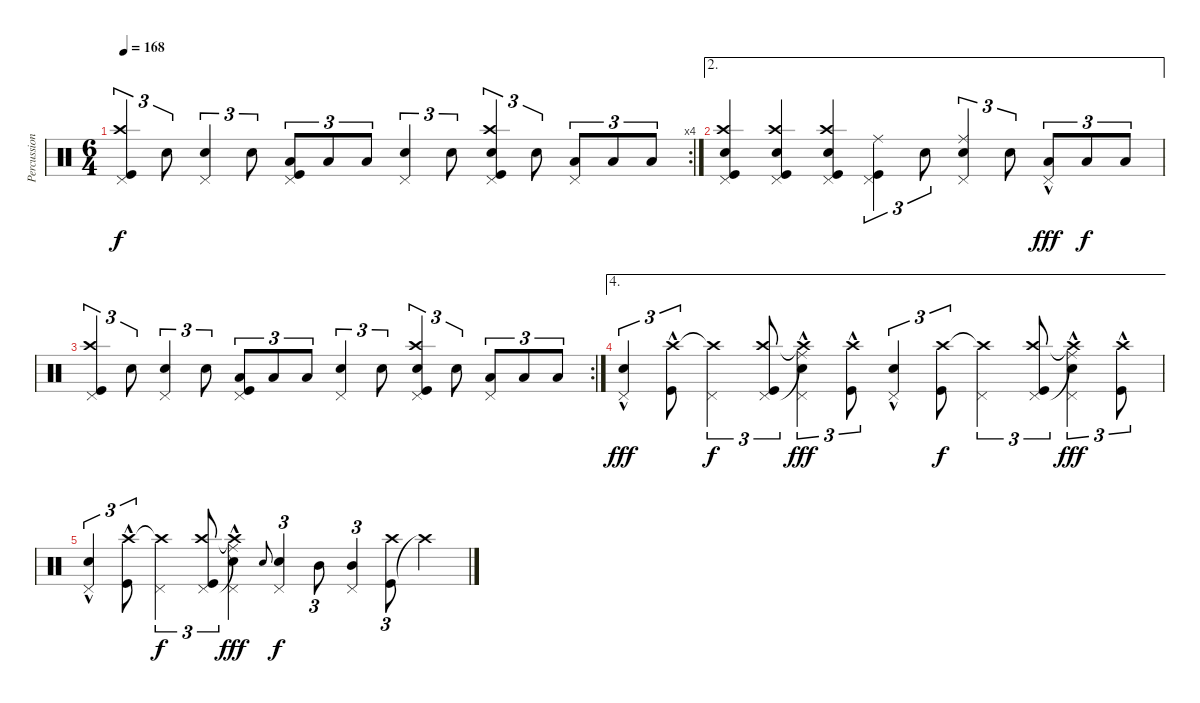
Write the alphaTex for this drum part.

\track ("Percussions" "Percussion") {instrument percussion}
\staff {score}
\articulation defaults
\rc 4
\ts (6 4)
\tempo 168
\clef neutral
\ks c
("Kick (hit)" "Crash high (hit)" "Pedal Hi-Hat (hit)").4{tu (3 2) dy f} "Snare (hit) 2".8{tu (3 2)} ("Snare (hit) 2" "Pedal Hi-Hat (hit)").4{tu (3 2)} "Snare (hit) 2".8{tu (3 2) beam split} ("Low Tom (hit)" "Kick (hit)" "Pedal Hi-Hat (hit)").8{tu (3 2)} "Low Tom (hit)".8{tu (3 2)} "Low Tom (hit)".8{tu (3 2)} ("Snare (hit) 2" "Pedal Hi-Hat (hit)").4{tu (3 2)} "Snare (hit) 2".8{tu (3 2)} ("Kick (hit)" "Crash high (hit)" "Snare (hit) 2" "Pedal Hi-Hat (hit)").4{tu (3 2)} "Snare (hit) 2".8{tu (3 2) beam split} ("Low Tom (hit)" "Pedal Hi-Hat (hit)").8{tu (3 2)} "Low Tom (hit)".8{tu (3 2)} "Low Tom (hit)".8{tu (3 2)} |
\ae 2
("Kick (hit)" "Crash high (hit)" "Snare (hit) 2" "Pedal Hi-Hat (hit)").4 ("Kick (hit)" "Crash high (hit)" "Snare (hit) 2" "Pedal Hi-Hat (hit)").4 ("Kick (hit)" "Crash high (hit)" "Snare (hit) 2" "Pedal Hi-Hat (hit)").4 ("Kick (hit)" "Ride (middle)" "Pedal Hi-Hat (hit)").4{tu (3 2)} "Snare (hit) 2".8{tu (3 2)} ("Snare (hit) 2" "Ride (middle)" "Pedal Hi-Hat (hit)").4{tu (3 2)} "Snare (hit) 2".8{tu (3 2) beam split} ("Low Tom (hit)" "Pedal Hi-Hat (hit)"{hac}).8{tu (3 2) dy fff} "Low Tom (hit)".8{tu (3 2) dy f} "Low Tom (hit)".8{tu (3 2)} |
\rc 2
("Kick (hit)" "Crash high (hit)" "Pedal Hi-Hat (hit)").4{tu (3 2)} "Snare (hit) 2".8{tu (3 2)} ("Snare (hit) 2" "Pedal Hi-Hat (hit)").4{tu (3 2)} "Snare (hit) 2".8{tu (3 2) beam split} ("Low Tom (hit)" "Kick (hit)" "Pedal Hi-Hat (hit)").8{tu (3 2)} "Low Tom (hit)".8{tu (3 2)} "Low Tom (hit)".8{tu (3 2)} ("Snare (hit) 2" "Pedal Hi-Hat (hit)").4{tu (3 2)} "Snare (hit) 2".8{tu (3 2)} ("Kick (hit)" "Crash high (hit)" "Snare (hit) 2" "Pedal Hi-Hat (hit)").4{tu (3 2)} "Snare (hit) 2".8{tu (3 2) beam split} ("Low Tom (hit)" "Pedal Hi-Hat (hit)").8{tu (3 2)} "Low Tom (hit)".8{tu (3 2)} "Low Tom (hit)".8{tu (3 2)} |
\ae 4
("Pedal Hi-Hat (hit)" "Snare (hit) 2"{hac}).4{tu (3 2) dy fff} ("Kick (hit)"{hac} "Crash high (hit)").8{tu (3 2)} ("Pedal Hi-Hat (hit)" "Crash high (hit)"{t}).4{tu (3 2) dy f} ("Crash high (hit)" "Pedal Hi-Hat (hit)" "Kick (hit)").8{tu (3 2)} ("Crash high (hit)"{t} "Ride (middle)"{t} "Pedal Hi-Hat (hit)" "Snare (hit) 2"{hac}).4{tu (3 2) dy fff} ("Kick (hit)"{hac} "Crash high (hit)").8{tu (3 2)} ("Pedal Hi-Hat (hit)" "Snare (hit) 2"{hac}).4{tu (3 2)} ("Kick (hit)" "Crash high (hit)").8{tu (3 2) dy f} ("Pedal Hi-Hat (hit)" "Crash high (hit)"{t}).4{tu (3 2)} ("Crash high (hit)" "Pedal Hi-Hat (hit)" "Kick (hit)").8{tu (3 2)} ("Crash high (hit)"{t} "Ride (middle)"{t} "Pedal Hi-Hat (hit)" "Snare (hit) 2"{hac}).4{tu (3 2) dy fff} ("Kick (hit)"{hac} "Crash high (hit)").8{tu (3 2)} |
("Pedal Hi-Hat (hit)" "Snare (hit) 2"{hac}).4{tu (3 2)} ("Kick (hit)"{hac} "Crash high (hit)").8{tu (3 2)} ("Pedal Hi-Hat (hit)" "Crash high (hit)"{t}).4{tu (3 2) dy f} ("Crash high (hit)" "Pedal Hi-Hat (hit)" "Kick (hit)").8{tu (3 2)} ("Crash high (hit)"{t} "Ride (middle)"{t} "Pedal Hi-Hat (hit)" "Snare (hit) 2"{hac}).4{dy fff} "Snare (hit) 2".8{gr onbeat} ("Snare (hit) 2" "Pedal Hi-Hat (hit)").4{tu (3 2) dy f} "Mid Tom (hit)".8{tu (3 2)} ("Mid Tom (hit)" "Pedal Hi-Hat (hit)").4{tu (3 2)} ("Kick (hit)" "Crash high (hit)").8{tu (3 2)} "Crash high (hit)"{t}.4
